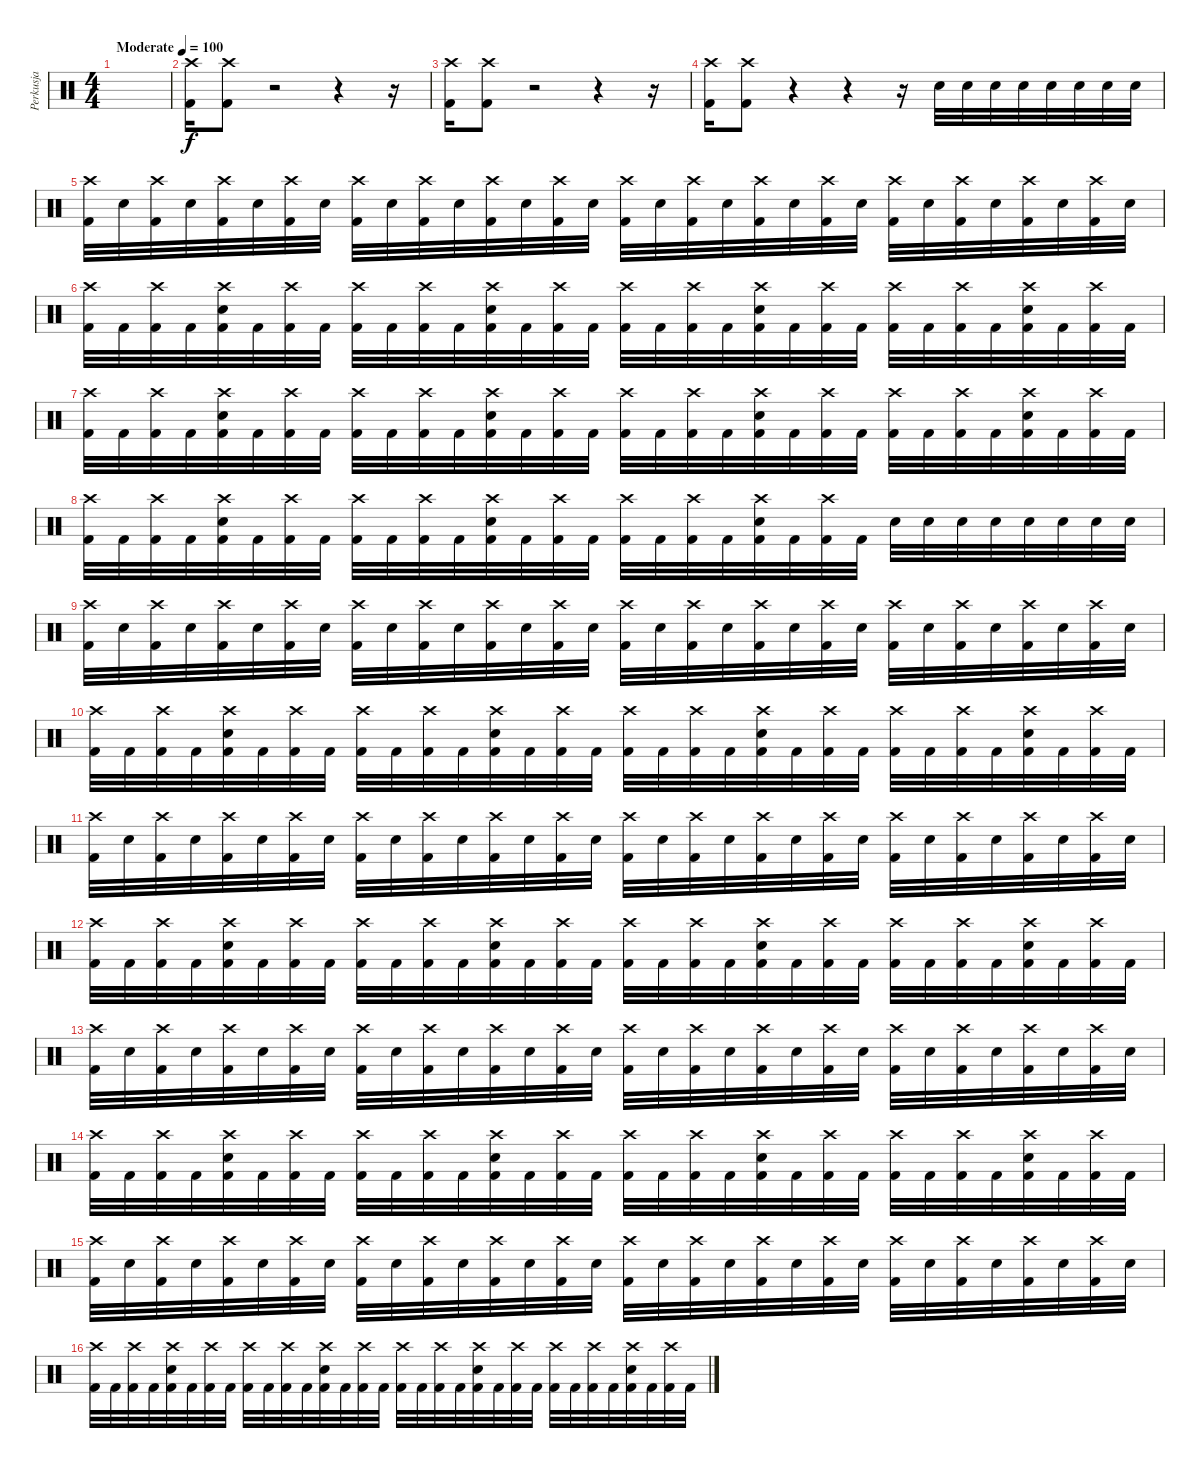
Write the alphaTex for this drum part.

\track ("Perkusja" "Perkusja") {instrument percussion}
\staff {score}
\articulation defaults
\ts (4 4)
\tempo (100 "Moderate")
\clef neutral
\ks c
|
("Crash high (hit)" "Kick (hit) 2").16 ("Crash high (hit)" "Kick (hit) 2").8 r.2 r.4 r.16 |
("Crash high (hit)" "Kick (hit) 2").16 ("Crash high (hit)" "Kick (hit) 2").8 r.2 r.4 r.16 |
("Crash high (hit)" "Kick (hit) 2").16 ("Crash high (hit)" "Kick (hit) 2").8 r.4 r.4 r.16 "Snare (hit) 2".32 "Snare (hit) 2".32 "Snare (hit) 2".32 "Snare (hit) 2".32 "Snare (hit) 2".32 "Snare (hit) 2".32 "Snare (hit) 2".32 "Snare (hit) 2".32 |
("Crash high (hit)" "Kick (hit) 2").32 "Snare (hit) 2".32 ("Crash high (hit)" "Kick (hit) 2").32 "Snare (hit) 2".32 ("Crash high (hit)" "Kick (hit) 2").32 "Snare (hit) 2".32 ("Crash high (hit)" "Kick (hit) 2").32 "Snare (hit) 2".32 ("Crash high (hit)" "Kick (hit) 2").32 "Snare (hit) 2".32 ("Crash high (hit)" "Kick (hit) 2").32 "Snare (hit) 2".32 ("Crash high (hit)" "Kick (hit) 2").32 "Snare (hit) 2".32 ("Crash high (hit)" "Kick (hit) 2").32 "Snare (hit) 2".32 ("Crash high (hit)" "Kick (hit) 2").32 "Snare (hit) 2".32 ("Crash high (hit)" "Kick (hit) 2").32 "Snare (hit) 2".32 ("Crash high (hit)" "Kick (hit) 2").32 "Snare (hit) 2".32 ("Crash high (hit)" "Kick (hit) 2").32 "Snare (hit) 2".32 ("Crash high (hit)" "Kick (hit) 2").32 "Snare (hit) 2".32 ("Crash high (hit)" "Kick (hit) 2").32 "Snare (hit) 2".32 ("Crash high (hit)" "Kick (hit) 2").32 "Snare (hit) 2".32 ("Crash high (hit)" "Kick (hit) 2").32 "Snare (hit) 2".32 |
("Crash high (hit)" "Kick (hit) 2").32 "Kick (hit) 2".32 ("Crash high (hit)" "Kick (hit) 2").32 "Kick (hit) 2".32 ("Crash high (hit)" "Snare (hit) 2" "Kick (hit) 2").32 "Kick (hit) 2".32 ("Crash high (hit)" "Kick (hit) 2").32 "Kick (hit) 2".32 ("Crash high (hit)" "Kick (hit) 2").32 "Kick (hit) 2".32 ("Crash high (hit)" "Kick (hit) 2").32 "Kick (hit) 2".32 ("Crash high (hit)" "Snare (hit) 2" "Kick (hit) 2").32 "Kick (hit) 2".32 ("Crash high (hit)" "Kick (hit) 2").32 "Kick (hit) 2".32 ("Crash high (hit)" "Kick (hit) 2").32 "Kick (hit) 2".32 ("Crash high (hit)" "Kick (hit) 2").32 "Kick (hit) 2".32 ("Crash high (hit)" "Snare (hit) 2" "Kick (hit) 2").32 "Kick (hit) 2".32 ("Crash high (hit)" "Kick (hit) 2").32 "Kick (hit) 2".32 ("Crash high (hit)" "Kick (hit) 2").32 "Kick (hit) 2".32 ("Crash high (hit)" "Kick (hit) 2").32 "Kick (hit) 2".32 ("Crash high (hit)" "Snare (hit) 2" "Kick (hit) 2").32 "Kick (hit) 2".32 ("Crash high (hit)" "Kick (hit) 2").32 "Kick (hit) 2".32 |
("Crash high (hit)" "Kick (hit) 2").32 "Kick (hit) 2".32 ("Crash high (hit)" "Kick (hit) 2").32 "Kick (hit) 2".32 ("Crash high (hit)" "Snare (hit) 2" "Kick (hit) 2").32 "Kick (hit) 2".32 ("Crash high (hit)" "Kick (hit) 2").32 "Kick (hit) 2".32 ("Crash high (hit)" "Kick (hit) 2").32 "Kick (hit) 2".32 ("Crash high (hit)" "Kick (hit) 2").32 "Kick (hit) 2".32 ("Crash high (hit)" "Snare (hit) 2" "Kick (hit) 2").32 "Kick (hit) 2".32 ("Crash high (hit)" "Kick (hit) 2").32 "Kick (hit) 2".32 ("Crash high (hit)" "Kick (hit) 2").32 "Kick (hit) 2".32 ("Crash high (hit)" "Kick (hit) 2").32 "Kick (hit) 2".32 ("Crash high (hit)" "Snare (hit) 2" "Kick (hit) 2").32 "Kick (hit) 2".32 ("Crash high (hit)" "Kick (hit) 2").32 "Kick (hit) 2".32 ("Crash high (hit)" "Kick (hit) 2").32 "Kick (hit) 2".32 ("Crash high (hit)" "Kick (hit) 2").32 "Kick (hit) 2".32 ("Crash high (hit)" "Snare (hit) 2" "Kick (hit) 2").32 "Kick (hit) 2".32 ("Crash high (hit)" "Kick (hit) 2").32 "Kick (hit) 2".32 |
("Crash high (hit)" "Kick (hit) 2").32 "Kick (hit) 2".32 ("Crash high (hit)" "Kick (hit) 2").32 "Kick (hit) 2".32 ("Crash high (hit)" "Snare (hit) 2" "Kick (hit) 2").32 "Kick (hit) 2".32 ("Crash high (hit)" "Kick (hit) 2").32 "Kick (hit) 2".32 ("Crash high (hit)" "Kick (hit) 2").32 "Kick (hit) 2".32 ("Crash high (hit)" "Kick (hit) 2").32 "Kick (hit) 2".32 ("Crash high (hit)" "Snare (hit) 2" "Kick (hit) 2").32 "Kick (hit) 2".32 ("Crash high (hit)" "Kick (hit) 2").32 "Kick (hit) 2".32 ("Crash high (hit)" "Kick (hit) 2").32 "Kick (hit) 2".32 ("Crash high (hit)" "Kick (hit) 2").32 "Kick (hit) 2".32 ("Crash high (hit)" "Snare (hit) 2" "Kick (hit) 2").32 "Kick (hit) 2".32 ("Crash high (hit)" "Kick (hit) 2").32 "Kick (hit) 2".32 "Snare (hit) 2".32 "Snare (hit) 2".32 "Snare (hit) 2".32 "Snare (hit) 2".32 "Snare (hit) 2".32 "Snare (hit) 2".32 "Snare (hit) 2".32 "Snare (hit) 2".32 |
("Crash high (hit)" "Kick (hit) 2").32 "Snare (hit) 2".32 ("Crash high (hit)" "Kick (hit) 2").32 "Snare (hit) 2".32 ("Crash high (hit)" "Kick (hit) 2").32 "Snare (hit) 2".32 ("Crash high (hit)" "Kick (hit) 2").32 "Snare (hit) 2".32 ("Crash high (hit)" "Kick (hit) 2").32 "Snare (hit) 2".32 ("Crash high (hit)" "Kick (hit) 2").32 "Snare (hit) 2".32 ("Crash high (hit)" "Kick (hit) 2").32 "Snare (hit) 2".32 ("Crash high (hit)" "Kick (hit) 2").32 "Snare (hit) 2".32 ("Crash high (hit)" "Kick (hit) 2").32 "Snare (hit) 2".32 ("Crash high (hit)" "Kick (hit) 2").32 "Snare (hit) 2".32 ("Crash high (hit)" "Kick (hit) 2").32 "Snare (hit) 2".32 ("Crash high (hit)" "Kick (hit) 2").32 "Snare (hit) 2".32 ("Crash high (hit)" "Kick (hit) 2").32 "Snare (hit) 2".32 ("Crash high (hit)" "Kick (hit) 2").32 "Snare (hit) 2".32 ("Crash high (hit)" "Kick (hit) 2").32 "Snare (hit) 2".32 ("Crash high (hit)" "Kick (hit) 2").32 "Snare (hit) 2".32 |
("Crash high (hit)" "Kick (hit) 2").32 "Kick (hit) 2".32 ("Crash high (hit)" "Kick (hit) 2").32 "Kick (hit) 2".32 ("Crash high (hit)" "Snare (hit) 2" "Kick (hit) 2").32 "Kick (hit) 2".32 ("Crash high (hit)" "Kick (hit) 2").32 "Kick (hit) 2".32 ("Crash high (hit)" "Kick (hit) 2").32 "Kick (hit) 2".32 ("Crash high (hit)" "Kick (hit) 2").32 "Kick (hit) 2".32 ("Crash high (hit)" "Snare (hit) 2" "Kick (hit) 2").32 "Kick (hit) 2".32 ("Crash high (hit)" "Kick (hit) 2").32 "Kick (hit) 2".32 ("Crash high (hit)" "Kick (hit) 2").32 "Kick (hit) 2".32 ("Crash high (hit)" "Kick (hit) 2").32 "Kick (hit) 2".32 ("Crash high (hit)" "Snare (hit) 2" "Kick (hit) 2").32 "Kick (hit) 2".32 ("Crash high (hit)" "Kick (hit) 2").32 "Kick (hit) 2".32 ("Crash high (hit)" "Kick (hit) 2").32 "Kick (hit) 2".32 ("Crash high (hit)" "Kick (hit) 2").32 "Kick (hit) 2".32 ("Crash high (hit)" "Snare (hit) 2" "Kick (hit) 2").32 "Kick (hit) 2".32 ("Crash high (hit)" "Kick (hit) 2").32 "Kick (hit) 2".32 |
("Crash high (hit)" "Kick (hit) 2").32 "Snare (hit) 2".32 ("Crash high (hit)" "Kick (hit) 2").32 "Snare (hit) 2".32 ("Crash high (hit)" "Kick (hit) 2").32 "Snare (hit) 2".32 ("Crash high (hit)" "Kick (hit) 2").32 "Snare (hit) 2".32 ("Crash high (hit)" "Kick (hit) 2").32 "Snare (hit) 2".32 ("Crash high (hit)" "Kick (hit) 2").32 "Snare (hit) 2".32 ("Crash high (hit)" "Kick (hit) 2").32 "Snare (hit) 2".32 ("Crash high (hit)" "Kick (hit) 2").32 "Snare (hit) 2".32 ("Crash high (hit)" "Kick (hit) 2").32 "Snare (hit) 2".32 ("Crash high (hit)" "Kick (hit) 2").32 "Snare (hit) 2".32 ("Crash high (hit)" "Kick (hit) 2").32 "Snare (hit) 2".32 ("Crash high (hit)" "Kick (hit) 2").32 "Snare (hit) 2".32 ("Crash high (hit)" "Kick (hit) 2").32 "Snare (hit) 2".32 ("Crash high (hit)" "Kick (hit) 2").32 "Snare (hit) 2".32 ("Crash high (hit)" "Kick (hit) 2").32 "Snare (hit) 2".32 ("Crash high (hit)" "Kick (hit) 2").32 "Snare (hit) 2".32 |
("Crash high (hit)" "Kick (hit) 2").32 "Kick (hit) 2".32 ("Crash high (hit)" "Kick (hit) 2").32 "Kick (hit) 2".32 ("Crash high (hit)" "Snare (hit) 2" "Kick (hit) 2").32 "Kick (hit) 2".32 ("Crash high (hit)" "Kick (hit) 2").32 "Kick (hit) 2".32 ("Crash high (hit)" "Kick (hit) 2").32 "Kick (hit) 2".32 ("Crash high (hit)" "Kick (hit) 2").32 "Kick (hit) 2".32 ("Crash high (hit)" "Snare (hit) 2" "Kick (hit) 2").32 "Kick (hit) 2".32 ("Crash high (hit)" "Kick (hit) 2").32 "Kick (hit) 2".32 ("Crash high (hit)" "Kick (hit) 2").32 "Kick (hit) 2".32 ("Crash high (hit)" "Kick (hit) 2").32 "Kick (hit) 2".32 ("Crash high (hit)" "Snare (hit) 2" "Kick (hit) 2").32 "Kick (hit) 2".32 ("Crash high (hit)" "Kick (hit) 2").32 "Kick (hit) 2".32 ("Crash high (hit)" "Kick (hit) 2").32 "Kick (hit) 2".32 ("Crash high (hit)" "Kick (hit) 2").32 "Kick (hit) 2".32 ("Crash high (hit)" "Snare (hit) 2" "Kick (hit) 2").32 "Kick (hit) 2".32 ("Crash high (hit)" "Kick (hit) 2").32 "Kick (hit) 2".32 |
("Crash high (hit)" "Kick (hit) 2").32 "Snare (hit) 2".32 ("Crash high (hit)" "Kick (hit) 2").32 "Snare (hit) 2".32 ("Crash high (hit)" "Kick (hit) 2").32 "Snare (hit) 2".32 ("Crash high (hit)" "Kick (hit) 2").32 "Snare (hit) 2".32 ("Crash high (hit)" "Kick (hit) 2").32 "Snare (hit) 2".32 ("Crash high (hit)" "Kick (hit) 2").32 "Snare (hit) 2".32 ("Crash high (hit)" "Kick (hit) 2").32 "Snare (hit) 2".32 ("Crash high (hit)" "Kick (hit) 2").32 "Snare (hit) 2".32 ("Crash high (hit)" "Kick (hit) 2").32 "Snare (hit) 2".32 ("Crash high (hit)" "Kick (hit) 2").32 "Snare (hit) 2".32 ("Crash high (hit)" "Kick (hit) 2").32 "Snare (hit) 2".32 ("Crash high (hit)" "Kick (hit) 2").32 "Snare (hit) 2".32 ("Crash high (hit)" "Kick (hit) 2").32 "Snare (hit) 2".32 ("Crash high (hit)" "Kick (hit) 2").32 "Snare (hit) 2".32 ("Crash high (hit)" "Kick (hit) 2").32 "Snare (hit) 2".32 ("Crash high (hit)" "Kick (hit) 2").32 "Snare (hit) 2".32 |
("Crash high (hit)" "Kick (hit) 2").32 "Kick (hit) 2".32 ("Crash high (hit)" "Kick (hit) 2").32 "Kick (hit) 2".32 ("Crash high (hit)" "Snare (hit) 2" "Kick (hit) 2").32 "Kick (hit) 2".32 ("Crash high (hit)" "Kick (hit) 2").32 "Kick (hit) 2".32 ("Crash high (hit)" "Kick (hit) 2").32 "Kick (hit) 2".32 ("Crash high (hit)" "Kick (hit) 2").32 "Kick (hit) 2".32 ("Crash high (hit)" "Snare (hit) 2" "Kick (hit) 2").32 "Kick (hit) 2".32 ("Crash high (hit)" "Kick (hit) 2").32 "Kick (hit) 2".32 ("Crash high (hit)" "Kick (hit) 2").32 "Kick (hit) 2".32 ("Crash high (hit)" "Kick (hit) 2").32 "Kick (hit) 2".32 ("Crash high (hit)" "Snare (hit) 2" "Kick (hit) 2").32 "Kick (hit) 2".32 ("Crash high (hit)" "Kick (hit) 2").32 "Kick (hit) 2".32 ("Crash high (hit)" "Kick (hit) 2").32 "Kick (hit) 2".32 ("Crash high (hit)" "Kick (hit) 2").32 "Kick (hit) 2".32 ("Crash high (hit)" "Snare (hit) 2" "Kick (hit) 2").32 "Kick (hit) 2".32 ("Crash high (hit)" "Kick (hit) 2").32 "Kick (hit) 2".32 |
("Crash high (hit)" "Kick (hit) 2").32 "Snare (hit) 2".32 ("Crash high (hit)" "Kick (hit) 2").32 "Snare (hit) 2".32 ("Crash high (hit)" "Kick (hit) 2").32 "Snare (hit) 2".32 ("Crash high (hit)" "Kick (hit) 2").32 "Snare (hit) 2".32 ("Crash high (hit)" "Kick (hit) 2").32 "Snare (hit) 2".32 ("Crash high (hit)" "Kick (hit) 2").32 "Snare (hit) 2".32 ("Crash high (hit)" "Kick (hit) 2").32 "Snare (hit) 2".32 ("Crash high (hit)" "Kick (hit) 2").32 "Snare (hit) 2".32 ("Crash high (hit)" "Kick (hit) 2").32 "Snare (hit) 2".32 ("Crash high (hit)" "Kick (hit) 2").32 "Snare (hit) 2".32 ("Crash high (hit)" "Kick (hit) 2").32 "Snare (hit) 2".32 ("Crash high (hit)" "Kick (hit) 2").32 "Snare (hit) 2".32 ("Crash high (hit)" "Kick (hit) 2").32 "Snare (hit) 2".32 ("Crash high (hit)" "Kick (hit) 2").32 "Snare (hit) 2".32 ("Crash high (hit)" "Kick (hit) 2").32 "Snare (hit) 2".32 ("Crash high (hit)" "Kick (hit) 2").32 "Snare (hit) 2".32 |
("Crash high (hit)" "Kick (hit) 2").32 "Kick (hit) 2".32 ("Crash high (hit)" "Kick (hit) 2").32 "Kick (hit) 2".32 ("Crash high (hit)" "Snare (hit) 2" "Kick (hit) 2").32 "Kick (hit) 2".32 ("Crash high (hit)" "Kick (hit) 2").32 "Kick (hit) 2".32 ("Crash high (hit)" "Kick (hit) 2").32 "Kick (hit) 2".32 ("Crash high (hit)" "Kick (hit) 2").32 "Kick (hit) 2".32 ("Crash high (hit)" "Snare (hit) 2" "Kick (hit) 2").32 "Kick (hit) 2".32 ("Crash high (hit)" "Kick (hit) 2").32 "Kick (hit) 2".32 ("Crash high (hit)" "Kick (hit) 2").32 "Kick (hit) 2".32 ("Crash high (hit)" "Kick (hit) 2").32 "Kick (hit) 2".32 ("Crash high (hit)" "Snare (hit) 2" "Kick (hit) 2").32 "Kick (hit) 2".32 ("Crash high (hit)" "Kick (hit) 2").32 "Kick (hit) 2".32 ("Crash high (hit)" "Kick (hit) 2").32 "Kick (hit) 2".32 ("Crash high (hit)" "Kick (hit) 2").32 "Kick (hit) 2".32 ("Crash high (hit)" "Snare (hit) 2" "Kick (hit) 2").32 "Kick (hit) 2".32 ("Crash high (hit)" "Kick (hit) 2").32 "Kick (hit) 2".32
